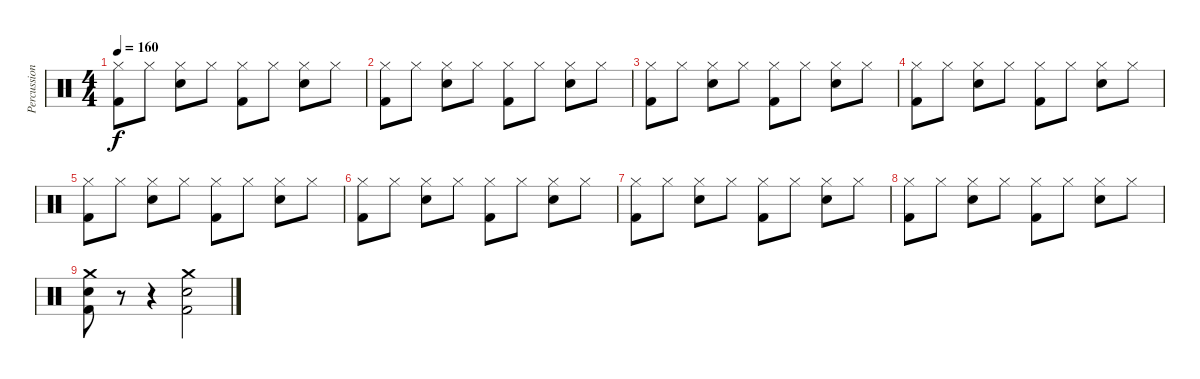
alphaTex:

\track ("Percussion" "Percussion") {instrument percussion}
\staff {score}
\articulation defaults
\ts (4 4)
\tempo 160
\clef neutral
\ks c
("Hi-Hat (closed)" "Kick (hit) 2").8{dy f} "Hi-Hat (closed)".8 ("Hi-Hat (closed)" "Electric Snare (hit)").8 "Hi-Hat (closed)".8 ("Hi-Hat (closed)" "Kick (hit) 2").8 "Hi-Hat (closed)".8 ("Hi-Hat (closed)" "Electric Snare (hit)").8 "Hi-Hat (closed)".8 |
("Hi-Hat (closed)" "Kick (hit) 2").8 "Hi-Hat (closed)".8 ("Hi-Hat (closed)" "Electric Snare (hit)").8 "Hi-Hat (closed)".8 ("Hi-Hat (closed)" "Kick (hit) 2").8 "Hi-Hat (closed)".8 ("Hi-Hat (closed)" "Electric Snare (hit)").8 "Hi-Hat (closed)".8 |
("Hi-Hat (closed)" "Kick (hit) 2").8 "Hi-Hat (closed)".8 ("Hi-Hat (closed)" "Electric Snare (hit)").8 "Hi-Hat (closed)".8 ("Hi-Hat (closed)" "Kick (hit) 2").8 "Hi-Hat (closed)".8 ("Hi-Hat (closed)" "Electric Snare (hit)").8 "Hi-Hat (closed)".8 |
("Hi-Hat (closed)" "Kick (hit) 2").8 "Hi-Hat (closed)".8 ("Hi-Hat (closed)" "Electric Snare (hit)").8 "Hi-Hat (closed)".8 ("Hi-Hat (closed)" "Kick (hit) 2").8 "Hi-Hat (closed)".8 ("Hi-Hat (closed)" "Electric Snare (hit)").8 "Hi-Hat (closed)".8 |
("Hi-Hat (closed)" "Kick (hit) 2").8 "Hi-Hat (closed)".8 ("Hi-Hat (closed)" "Electric Snare (hit)").8 "Hi-Hat (closed)".8 ("Hi-Hat (closed)" "Kick (hit) 2").8 "Hi-Hat (closed)".8 ("Hi-Hat (closed)" "Electric Snare (hit)").8 "Hi-Hat (closed)".8 |
("Hi-Hat (closed)" "Kick (hit) 2").8 "Hi-Hat (closed)".8 ("Hi-Hat (closed)" "Electric Snare (hit)").8 "Hi-Hat (closed)".8 ("Hi-Hat (closed)" "Kick (hit) 2").8 "Hi-Hat (closed)".8 ("Hi-Hat (closed)" "Electric Snare (hit)").8 "Hi-Hat (closed)".8 |
("Hi-Hat (closed)" "Kick (hit) 2").8 "Hi-Hat (closed)".8 ("Hi-Hat (closed)" "Electric Snare (hit)").8 "Hi-Hat (closed)".8 ("Hi-Hat (closed)" "Kick (hit) 2").8 "Hi-Hat (closed)".8 ("Hi-Hat (closed)" "Electric Snare (hit)").8 "Hi-Hat (closed)".8 |
("Hi-Hat (closed)" "Kick (hit) 2").8 "Hi-Hat (closed)".8 ("Hi-Hat (closed)" "Electric Snare (hit)").8 "Hi-Hat (closed)".8 ("Hi-Hat (closed)" "Kick (hit) 2").8 "Hi-Hat (closed)".8 ("Hi-Hat (closed)" "Electric Snare (hit)").8 "Hi-Hat (closed)".8 |
("Crash medium (hit)" "Electric Snare (hit)" "Kick (hit) 2").8 r.8 r.4 ("Crash medium (hit)" "Electric Snare (hit)" "Kick (hit) 2").2
